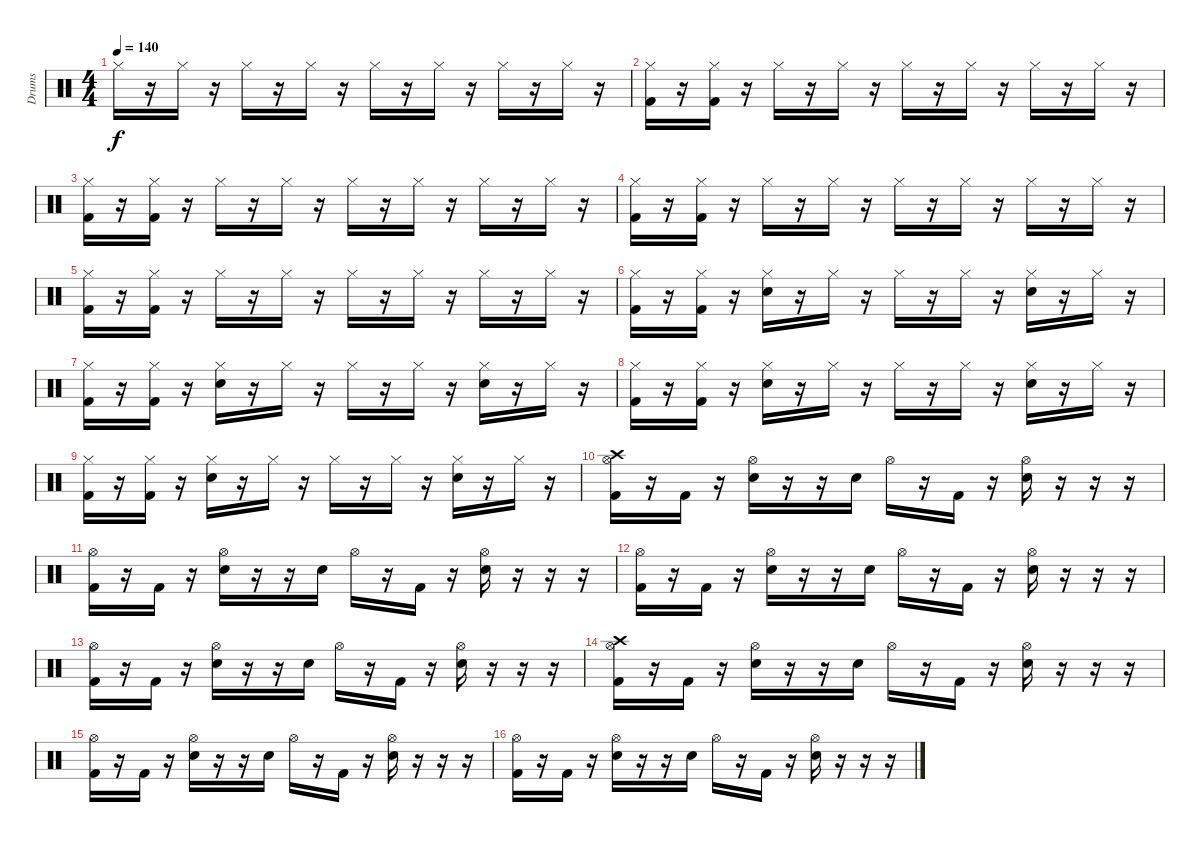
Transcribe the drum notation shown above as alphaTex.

\track ("Drums" "Drums") {instrument percussion}
\staff {score}
\articulation defaults
\ts (4 4)
\tempo 140
\clef neutral
\ks c "Hi-Hat (closed)".16{dy f}
r.16 "Hi-Hat (closed)".16 r.16 "Hi-Hat (closed)".16 r.16 "Hi-Hat (closed)".16 r.16 "Hi-Hat (closed)".16 r.16 "Hi-Hat (closed)".16 r.16 "Hi-Hat (closed)".16 r.16 "Hi-Hat (closed)".16 r.16 |
("Kick (hit) 2" "Hi-Hat (closed)").16 r.16 ("Kick (hit) 2" "Hi-Hat (closed)").16 r.16 "Hi-Hat (closed)".16 r.16 "Hi-Hat (closed)".16 r.16 "Hi-Hat (closed)".16 r.16 "Hi-Hat (closed)".16 r.16 "Hi-Hat (closed)".16 r.16 "Hi-Hat (closed)".16 r.16 |
("Kick (hit) 2" "Hi-Hat (closed)").16 r.16 ("Kick (hit) 2" "Hi-Hat (closed)").16 r.16 "Hi-Hat (closed)".16 r.16 "Hi-Hat (closed)".16 r.16 "Hi-Hat (closed)".16 r.16 "Hi-Hat (closed)".16 r.16 "Hi-Hat (closed)".16 r.16 "Hi-Hat (closed)".16 r.16 |
("Kick (hit) 2" "Hi-Hat (closed)").16 r.16 ("Kick (hit) 2" "Hi-Hat (closed)").16 r.16 "Hi-Hat (closed)".16 r.16 "Hi-Hat (closed)".16 r.16 "Hi-Hat (closed)".16 r.16 "Hi-Hat (closed)".16 r.16 "Hi-Hat (closed)".16 r.16 "Hi-Hat (closed)".16 r.16 |
("Kick (hit) 2" "Hi-Hat (closed)").16 r.16 ("Kick (hit) 2" "Hi-Hat (closed)").16 r.16 "Hi-Hat (closed)".16 r.16 "Hi-Hat (closed)".16 r.16 "Hi-Hat (closed)".16 r.16 "Hi-Hat (closed)".16 r.16 "Hi-Hat (closed)".16 r.16 "Hi-Hat (closed)".16 r.16 |
("Kick (hit) 2" "Hi-Hat (closed)").16 r.16 ("Kick (hit) 2" "Hi-Hat (closed)").16 r.16 ("Electric Snare (hit)" "Hi-Hat (closed)").16 r.16 "Hi-Hat (closed)".16 r.16 "Hi-Hat (closed)".16 r.16 "Hi-Hat (closed)".16 r.16 ("Electric Snare (hit)" "Hi-Hat (closed)").16 r.16 "Hi-Hat (closed)".16 r.16 |
("Kick (hit) 2" "Hi-Hat (closed)").16 r.16 ("Kick (hit) 2" "Hi-Hat (closed)").16 r.16 ("Electric Snare (hit)" "Hi-Hat (closed)").16 r.16 "Hi-Hat (closed)".16 r.16 "Hi-Hat (closed)".16 r.16 "Hi-Hat (closed)".16 r.16 ("Electric Snare (hit)" "Hi-Hat (closed)").16 r.16 "Hi-Hat (closed)".16 r.16 |
("Kick (hit) 2" "Hi-Hat (closed)").16 r.16 ("Kick (hit) 2" "Hi-Hat (closed)").16 r.16 ("Electric Snare (hit)" "Hi-Hat (closed)").16 r.16 "Hi-Hat (closed)".16 r.16 "Hi-Hat (closed)".16 r.16 "Hi-Hat (closed)".16 r.16 ("Electric Snare (hit)" "Hi-Hat (closed)").16 r.16 "Hi-Hat (closed)".16 r.16 |
("Kick (hit) 2" "Hi-Hat (closed)").16 r.16 ("Kick (hit) 2" "Hi-Hat (closed)").16 r.16 ("Electric Snare (hit)" "Hi-Hat (closed)").16 r.16 "Hi-Hat (closed)".16 r.16 "Hi-Hat (closed)".16 r.16 "Hi-Hat (closed)".16 r.16 ("Electric Snare (hit)" "Hi-Hat (closed)").16 r.16 "Hi-Hat (closed)".16 r.16 |
("Kick (hit) 2" "Crash high (hit)" "Hi-Hat (open)").16 r.16 "Kick (hit) 2".16 r.16 ("Electric Snare (hit)" "Hi-Hat (open)").16 r.16 r.16 "Electric Snare (hit)".16 "Hi-Hat (open)".16 r.16 "Kick (hit) 2".16 r.16 ("Electric Snare (hit)" "Hi-Hat (open)").16 r.16 r.16 r.16 |
("Kick (hit) 2" "Hi-Hat (open)").16 r.16 "Kick (hit) 2".16 r.16 ("Electric Snare (hit)" "Hi-Hat (open)").16 r.16 r.16 "Electric Snare (hit)".16 "Hi-Hat (open)".16 r.16 "Kick (hit) 2".16 r.16 ("Electric Snare (hit)" "Hi-Hat (open)").16 r.16 r.16 r.16 |
("Kick (hit) 2" "Hi-Hat (open)").16 r.16 "Kick (hit) 2".16 r.16 ("Electric Snare (hit)" "Hi-Hat (open)").16 r.16 r.16 "Electric Snare (hit)".16 "Hi-Hat (open)".16 r.16 "Kick (hit) 2".16 r.16 ("Electric Snare (hit)" "Hi-Hat (open)").16 r.16 r.16 r.16 |
("Kick (hit) 2" "Hi-Hat (open)").16 r.16 "Kick (hit) 2".16 r.16 ("Electric Snare (hit)" "Hi-Hat (open)").16 r.16 r.16 "Electric Snare (hit)".16 "Hi-Hat (open)".16 r.16 "Kick (hit) 2".16 r.16 ("Electric Snare (hit)" "Hi-Hat (open)").16 r.16 r.16 r.16 |
("Kick (hit) 2" "Crash high (hit)" "Hi-Hat (open)").16 r.16 "Kick (hit) 2".16 r.16 ("Electric Snare (hit)" "Hi-Hat (open)").16 r.16 r.16 "Electric Snare (hit)".16 "Hi-Hat (open)".16 r.16 "Kick (hit) 2".16 r.16 ("Electric Snare (hit)" "Hi-Hat (open)").16 r.16 r.16 r.16 |
("Kick (hit) 2" "Hi-Hat (open)").16 r.16 "Kick (hit) 2".16 r.16 ("Electric Snare (hit)" "Hi-Hat (open)").16 r.16 r.16 "Electric Snare (hit)".16 "Hi-Hat (open)".16 r.16 "Kick (hit) 2".16 r.16 ("Electric Snare (hit)" "Hi-Hat (open)").16 r.16 r.16 r.16 |
("Kick (hit) 2" "Hi-Hat (open)").16 r.16 "Kick (hit) 2".16 r.16 ("Electric Snare (hit)" "Hi-Hat (open)").16 r.16 r.16 "Electric Snare (hit)".16 "Hi-Hat (open)".16 r.16 "Kick (hit) 2".16 r.16 ("Electric Snare (hit)" "Hi-Hat (open)").16 r.16 r.16 r.16
